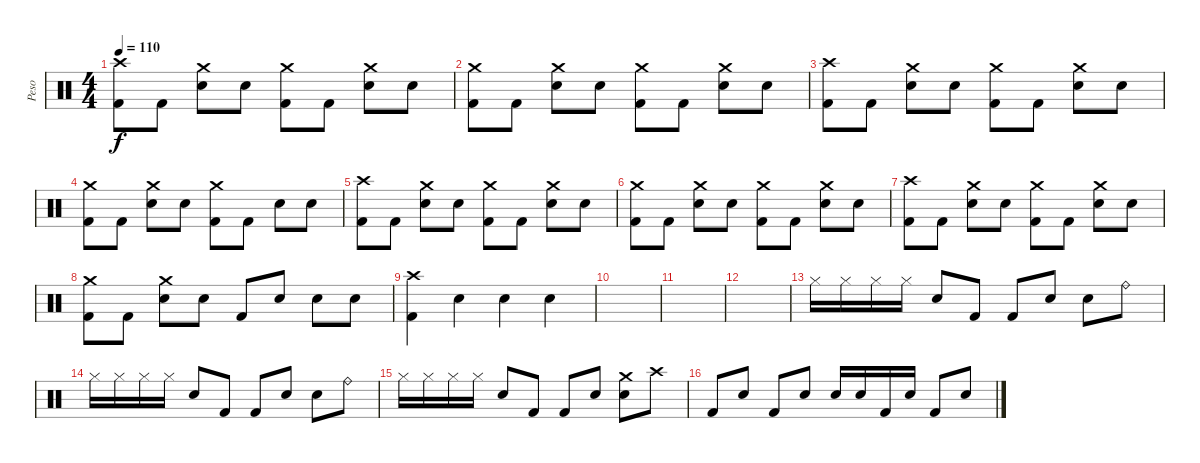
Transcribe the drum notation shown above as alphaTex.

\track ("Peso" "Peso") {instrument percussion}
\staff {score}
\articulation defaults
\ts (4 4)
\tempo 110
\clef neutral
\ks c
("Crash high (hit)" "Kick (hit) 2").8{dy f} "Kick (hit) 2".8 ("Crash medium (hit)" "Snare (hit) 2").8 "Snare (hit) 2".8 ("Crash medium (hit)" "Kick (hit) 2").8 "Kick (hit) 2".8 ("Crash medium (hit)" "Snare (hit) 2").8 "Snare (hit) 2".8 |
("Crash medium (hit)" "Kick (hit) 2").8 "Kick (hit) 2".8 ("Crash medium (hit)" "Snare (hit) 2").8 "Snare (hit) 2".8 ("Crash medium (hit)" "Kick (hit) 2").8 "Kick (hit) 2".8 ("Crash medium (hit)" "Snare (hit) 2").8 "Snare (hit) 2".8 |
("Crash high (hit)" "Kick (hit) 2").8 "Kick (hit) 2".8 ("Crash medium (hit)" "Snare (hit) 2").8 "Snare (hit) 2".8 ("Crash medium (hit)" "Kick (hit) 2").8 "Kick (hit) 2".8 ("Crash medium (hit)" "Snare (hit) 2").8 "Snare (hit) 2".8 |
("Crash medium (hit)" "Kick (hit) 2").8 "Kick (hit) 2".8 ("Crash medium (hit)" "Snare (hit) 2").8 "Snare (hit) 2".8 ("Crash medium (hit)" "Kick (hit) 2").8 "Kick (hit) 2".8 "Snare (hit) 2".8 "Snare (hit) 2".8 |
("Crash high (hit)" "Kick (hit) 2").8 "Kick (hit) 2".8 ("Crash medium (hit)" "Snare (hit) 2").8 "Snare (hit) 2".8 ("Crash medium (hit)" "Kick (hit) 2").8 "Kick (hit) 2".8 ("Crash medium (hit)" "Snare (hit) 2").8 "Snare (hit) 2".8 |
("Crash medium (hit)" "Kick (hit) 2").8 "Kick (hit) 2".8 ("Crash medium (hit)" "Snare (hit) 2").8 "Snare (hit) 2".8 ("Crash medium (hit)" "Kick (hit) 2").8 "Kick (hit) 2".8 ("Crash medium (hit)" "Snare (hit) 2").8 "Snare (hit) 2".8 |
("Crash high (hit)" "Kick (hit) 2").8 "Kick (hit) 2".8 ("Crash medium (hit)" "Snare (hit) 2").8 "Snare (hit) 2".8 ("Crash medium (hit)" "Kick (hit) 2").8 "Kick (hit) 2".8 ("Crash medium (hit)" "Snare (hit) 2").8 "Snare (hit) 2".8 |
("Crash medium (hit)" "Kick (hit) 2").8 "Kick (hit) 2".8 ("Crash medium (hit)" "Snare (hit) 2").8 "Snare (hit) 2".8 "Kick (hit) 2".8 "Snare (hit) 2".8 "Snare (hit) 2".8 "Snare (hit) 2".8 |
("Crash high (hit)" "Kick (hit) 2").4 "Snare (hit)"{x}.4 "Snare (hit)"{x}.4 "Snare (hit)"{x}.4 |
|
|
|
"Hi-Hat (closed)".16 "Hi-Hat (closed)".16 "Hi-Hat (closed)".16 "Hi-Hat (closed)".16 "Snare (hit) 2".8 "Kick (hit) 2".8 "Kick (hit) 2".8 "Snare (hit) 2".8 "Snare (hit) 2".8 "Ride (bell)".8 |
"Hi-Hat (closed)".16 "Hi-Hat (closed)".16 "Hi-Hat (closed)".16 "Hi-Hat (closed)".16 "Snare (hit) 2".8 "Kick (hit) 2".8 "Kick (hit) 2".8 "Snare (hit) 2".8 "Snare (hit) 2".8 "Ride (bell)".8 |
"Hi-Hat (closed)".16 "Hi-Hat (closed)".16 "Hi-Hat (closed)".16 "Hi-Hat (closed)".16 "Snare (hit) 2".8 "Kick (hit) 2".8 "Kick (hit) 2".8 "Snare (hit) 2".8 ("Crash medium (hit)" "Snare (hit) 2").8 "Crash high (hit)".8 |
"Kick (hit) 2".8 "Snare (hit) 2".8 "Kick (hit) 2".8 "Snare (hit) 2".8 "Snare (hit) 2".16 "Snare (hit) 2".16 "Kick (hit) 2".16 "Snare (hit) 2".16 "Kick (hit) 2".8 "Snare (hit) 2".8
